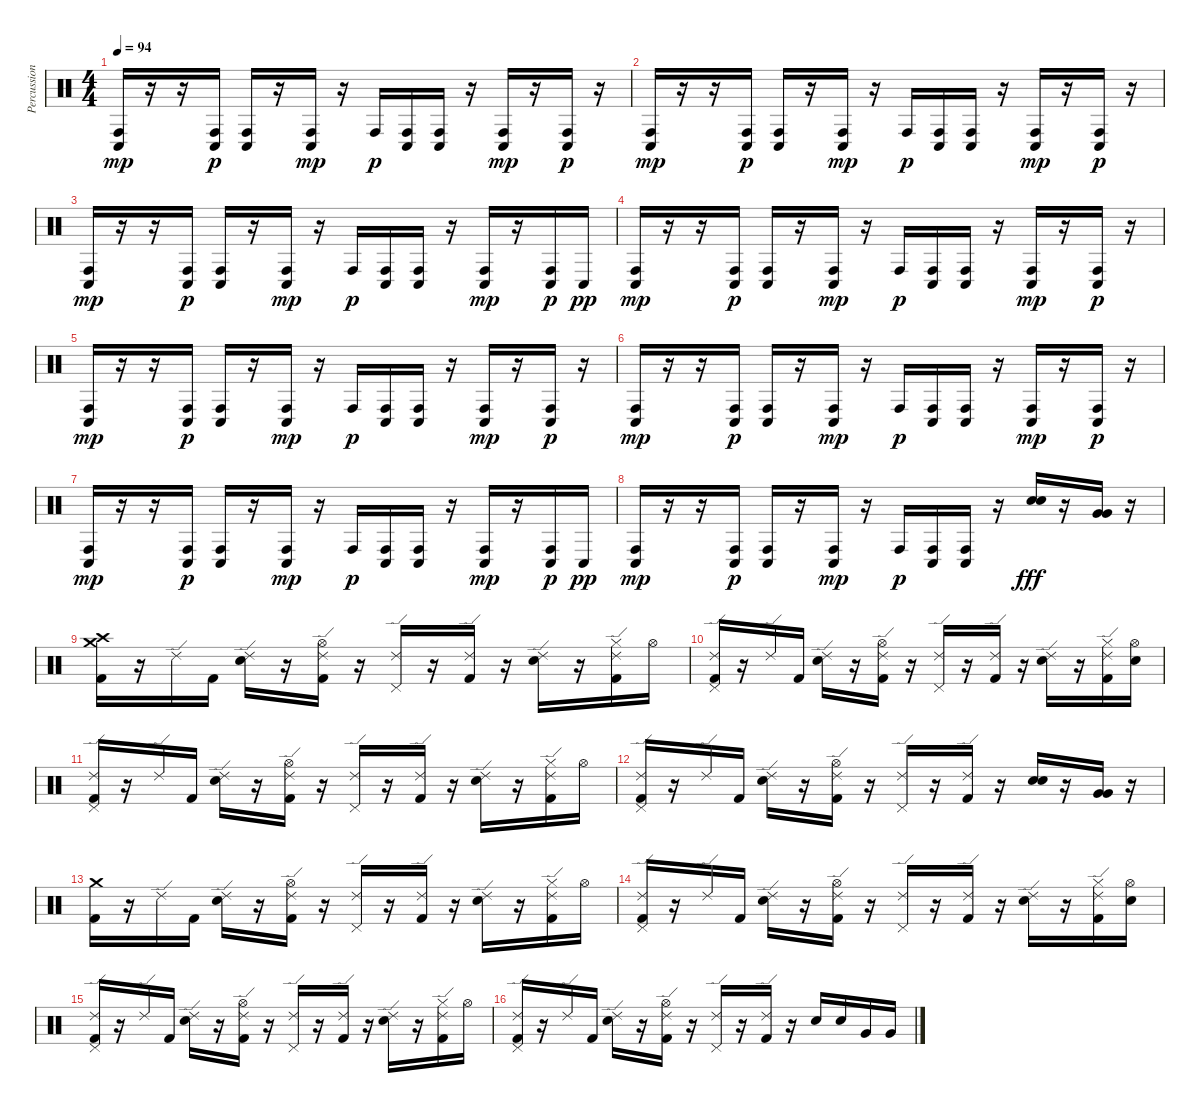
\track ("Percussions" "Percussion") {instrument percussion}
\staff {score}
\articulation defaults
\ts (4 4)
\tempo 94
\clef neutral
\ks c
("Conga low (hit)" "Conga high (hit)").16{dy mp} r.16 r.16 ("Conga low (hit)" "Conga high (hit)").16{dy p} ("Conga low (hit)" "Conga high (hit)").16 r.16 ("Conga low (hit)" "Conga high (hit)").16{dy mp} r.16 "Conga high (hit)".16{dy p} ("Conga low (hit)" "Conga high (hit)").16 ("Conga low (hit)" "Conga high (hit)").16 r.16 ("Conga low (hit)" "Conga high (hit)").16{dy mp} r.16 ("Conga low (hit)" "Conga high (hit)").16{dy p} r.16 |
("Conga low (hit)" "Conga high (hit)").16{dy mp} r.16 r.16 ("Conga low (hit)" "Conga high (hit)").16{dy p} ("Conga low (hit)" "Conga high (hit)").16 r.16 ("Conga low (hit)" "Conga high (hit)").16{dy mp} r.16 "Conga high (hit)".16{dy p} ("Conga low (hit)" "Conga high (hit)").16 ("Conga low (hit)" "Conga high (hit)").16 r.16 ("Conga low (hit)" "Conga high (hit)").16{dy mp} r.16 ("Conga low (hit)" "Conga high (hit)").16{dy p} r.16 |
("Conga low (hit)" "Conga high (hit)").16{dy mp} r.16 r.16 ("Conga low (hit)" "Conga high (hit)").16{dy p} ("Conga low (hit)" "Conga high (hit)").16 r.16 ("Conga low (hit)" "Conga high (hit)").16{dy mp} r.16 "Conga high (hit)".16{dy p} ("Conga low (hit)" "Conga high (hit)").16 ("Conga low (hit)" "Conga high (hit)").16 r.16 ("Conga low (hit)" "Conga high (hit)").16{dy mp} r.16 ("Conga low (hit)" "Conga high (hit)").16{dy p} "Conga low (hit)".16{dy pp} |
("Conga low (hit)" "Conga high (hit)").16{dy mp} r.16 r.16 ("Conga low (hit)" "Conga high (hit)").16{dy p} ("Conga low (hit)" "Conga high (hit)").16 r.16 ("Conga low (hit)" "Conga high (hit)").16{dy mp} r.16 "Conga high (hit)".16{dy p} ("Conga low (hit)" "Conga high (hit)").16 ("Conga low (hit)" "Conga high (hit)").16 r.16 ("Conga low (hit)" "Conga high (hit)").16{dy mp} r.16 ("Conga low (hit)" "Conga high (hit)").16{dy p} r.16 |
("Conga low (hit)" "Conga high (hit)").16{dy mp} r.16 r.16 ("Conga low (hit)" "Conga high (hit)").16{dy p} ("Conga low (hit)" "Conga high (hit)").16 r.16 ("Conga low (hit)" "Conga high (hit)").16{dy mp} r.16 "Conga high (hit)".16{dy p} ("Conga low (hit)" "Conga high (hit)").16 ("Conga low (hit)" "Conga high (hit)").16 r.16 ("Conga low (hit)" "Conga high (hit)").16{dy mp} r.16 ("Conga low (hit)" "Conga high (hit)").16{dy p} r.16 |
("Conga low (hit)" "Conga high (hit)").16{dy mp} r.16 r.16 ("Conga low (hit)" "Conga high (hit)").16{dy p} ("Conga low (hit)" "Conga high (hit)").16 r.16 ("Conga low (hit)" "Conga high (hit)").16{dy mp} r.16 "Conga high (hit)".16{dy p} ("Conga low (hit)" "Conga high (hit)").16 ("Conga low (hit)" "Conga high (hit)").16 r.16 ("Conga low (hit)" "Conga high (hit)").16{dy mp} r.16 ("Conga low (hit)" "Conga high (hit)").16{dy p} r.16 |
("Conga low (hit)" "Conga high (hit)").16{dy mp} r.16 r.16 ("Conga low (hit)" "Conga high (hit)").16{dy p} ("Conga low (hit)" "Conga high (hit)").16 r.16 ("Conga low (hit)" "Conga high (hit)").16{dy mp} r.16 "Conga high (hit)".16{dy p} ("Conga low (hit)" "Conga high (hit)").16 ("Conga low (hit)" "Conga high (hit)").16 r.16 ("Conga low (hit)" "Conga high (hit)").16{dy mp} r.16 ("Conga low (hit)" "Conga high (hit)").16{dy p} "Conga low (hit)".16{dy pp} |
("Conga low (hit)" "Conga high (hit)").16{dy mp} r.16 r.16 ("Conga low (hit)" "Conga high (hit)").16{dy p} ("Conga low (hit)" "Conga high (hit)").16 r.16 ("Conga low (hit)" "Conga high (hit)").16{dy mp} r.16 "Conga high (hit)".16{dy p} ("Conga low (hit)" "Conga high (hit)").16 ("Conga low (hit)" "Conga high (hit)").16 r.16 ("Electric Snare (hit)" "Electric Snare (hit)").16{dy fff} r.16 ("Very Low Tom (hit)" "Very Low Tom (hit)").16 r.16 |
("Crash medium (hit)" "Crash high (hit)" "Kick (hit) 2").16 r.16 "Ride (edge) 2".16 "Kick (hit) 2".16 ("Ride (edge) 2" "Electric Snare (hit)").16 r.16 ("Ride (edge) 2" "Hi-Hat (open)" "Kick (hit) 2").16 r.16 ("Ride (edge) 2" "Pedal Hi-Hat (hit)").16 r.16 ("Ride (edge) 2" "Kick (hit) 2").16 r.16 ("Ride (edge) 2" "Electric Snare (hit)").16 r.16 ("Ride (edge) 2" "Hi-Hat (closed)" "Kick (hit) 2").16 "Hi-Hat (open)".16 |
("Ride (edge) 2" "Pedal Hi-Hat (hit)" "Kick (hit) 2").16 r.16 "Ride (edge) 2".16 "Kick (hit) 2".16 ("Ride (edge) 2" "Electric Snare (hit)").16 r.16 ("Ride (edge) 2" "Hi-Hat (open)" "Kick (hit) 2").16 r.16 ("Ride (edge) 2" "Pedal Hi-Hat (hit)").16 r.16 ("Ride (edge) 2" "Kick (hit) 2").16 r.16 ("Ride (edge) 2" "Electric Snare (hit)").16 r.16 ("Ride (edge) 2" "Hi-Hat (closed)" "Kick (hit) 2").16 ("Hi-Hat (open)" "Electric Snare (hit)").16 |
("Ride (edge) 2" "Pedal Hi-Hat (hit)" "Kick (hit) 2").16 r.16 "Ride (edge) 2".16 "Kick (hit) 2".16 ("Ride (edge) 2" "Electric Snare (hit)").16 r.16 ("Ride (edge) 2" "Hi-Hat (open)" "Kick (hit) 2").16 r.16 ("Ride (edge) 2" "Pedal Hi-Hat (hit)").16 r.16 ("Ride (edge) 2" "Kick (hit) 2").16 r.16 ("Ride (edge) 2" "Electric Snare (hit)").16 r.16 ("Ride (edge) 2" "Hi-Hat (closed)" "Kick (hit) 2").16 "Hi-Hat (open)".16 |
("Ride (edge) 2" "Pedal Hi-Hat (hit)" "Kick (hit) 2").16 r.16 "Ride (edge) 2".16 "Kick (hit) 2".16 ("Ride (edge) 2" "Electric Snare (hit)").16 r.16 ("Ride (edge) 2" "Hi-Hat (open)" "Kick (hit) 2").16 r.16 ("Ride (edge) 2" "Pedal Hi-Hat (hit)").16 r.16 ("Ride (edge) 2" "Kick (hit) 2").16 r.16 ("Electric Snare (hit)" "Electric Snare (hit)").16 r.16 ("Very Low Tom (hit)" "Very Low Tom (hit)").16 r.16 |
("Crash medium (hit)" "Kick (hit) 2").16 r.16 "Ride (edge) 2".16 "Kick (hit) 2".16 ("Ride (edge) 2" "Electric Snare (hit)").16 r.16 ("Ride (edge) 2" "Hi-Hat (open)" "Kick (hit) 2").16 r.16 ("Ride (edge) 2" "Pedal Hi-Hat (hit)").16 r.16 ("Ride (edge) 2" "Kick (hit) 2").16 r.16 ("Ride (edge) 2" "Electric Snare (hit)").16 r.16 ("Ride (edge) 2" "Hi-Hat (closed)" "Kick (hit) 2").16 "Hi-Hat (open)".16 |
("Ride (edge) 2" "Pedal Hi-Hat (hit)" "Kick (hit) 2").16 r.16 "Ride (edge) 2".16 "Kick (hit) 2".16 ("Ride (edge) 2" "Electric Snare (hit)").16 r.16 ("Ride (edge) 2" "Hi-Hat (open)" "Kick (hit) 2").16 r.16 ("Ride (edge) 2" "Pedal Hi-Hat (hit)").16 r.16 ("Ride (edge) 2" "Kick (hit) 2").16 r.16 ("Ride (edge) 2" "Electric Snare (hit)").16 r.16 ("Ride (edge) 2" "Hi-Hat (closed)" "Kick (hit) 2").16 ("Hi-Hat (open)" "Electric Snare (hit)").16 |
("Ride (edge) 2" "Pedal Hi-Hat (hit)" "Kick (hit) 2").16 r.16 "Ride (edge) 2".16 "Kick (hit) 2".16 ("Ride (edge) 2" "Electric Snare (hit)").16 r.16 ("Ride (edge) 2" "Hi-Hat (open)" "Kick (hit) 2").16 r.16 ("Ride (edge) 2" "Pedal Hi-Hat (hit)").16 r.16 ("Ride (edge) 2" "Kick (hit) 2").16 r.16 ("Ride (edge) 2" "Electric Snare (hit)").16 r.16 ("Ride (edge) 2" "Hi-Hat (closed)" "Kick (hit) 2").16 "Hi-Hat (open)".16 |
("Ride (edge) 2" "Pedal Hi-Hat (hit)" "Kick (hit) 2").16 r.16 "Ride (edge) 2".16 "Kick (hit) 2".16 ("Ride (edge) 2" "Electric Snare (hit)").16 r.16 ("Ride (edge) 2" "Hi-Hat (open)" "Kick (hit) 2").16 r.16 ("Ride (edge) 2" "Pedal Hi-Hat (hit)").16 r.16 ("Ride (edge) 2" "Kick (hit) 2").16 r.16 "Electric Snare (hit)".16 "Electric Snare (hit)".16 "Very Low Tom (hit)".16 "Very Low Tom (hit)".16
